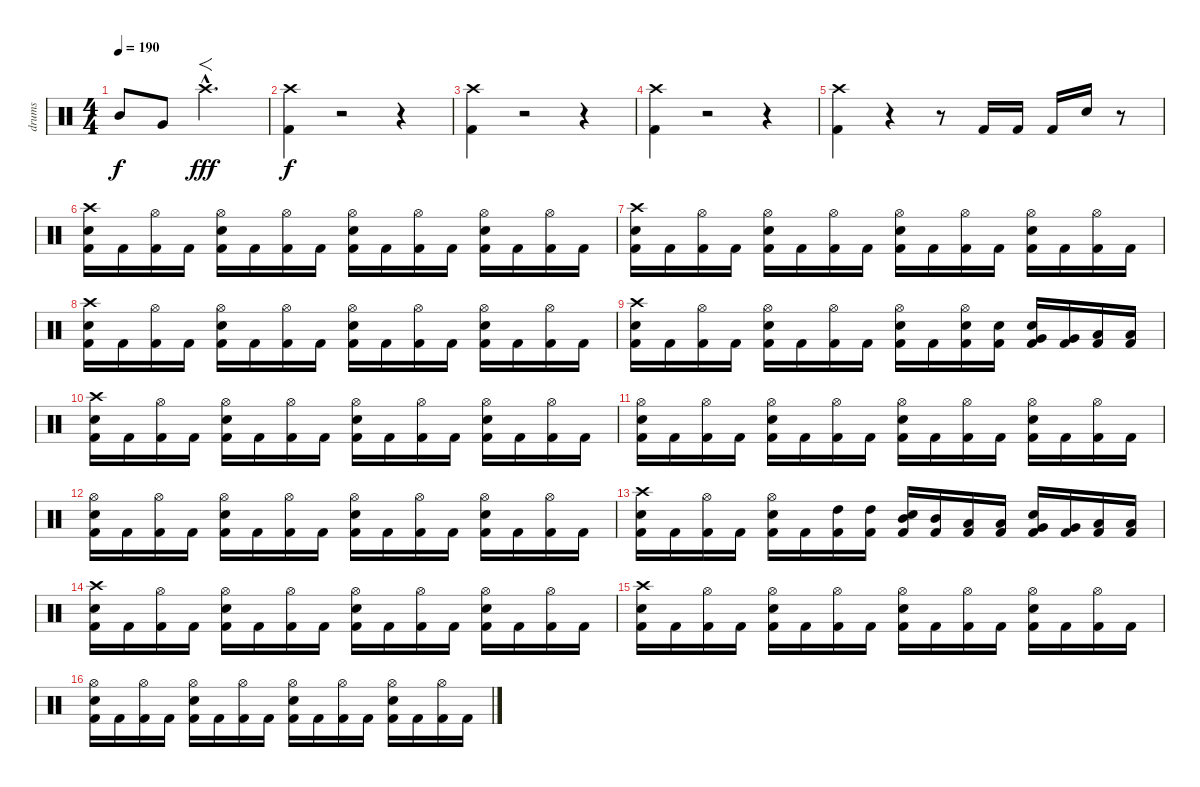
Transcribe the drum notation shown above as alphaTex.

\track ("drums" "drums") {instrument percussion}
\staff {score}
\articulation defaults
\ts (4 4)
\tempo 190
\clef neutral
\ks c "Mid Tom (hit)".8{dy f} "Very Low Tom (hit)".8 "Crash high (hit)"{hac}.2{f d dy fff}
|
("Crash high (hit)" "Kick (hit) 2").4{dy f} r.2 r.4 |
("Crash high (hit)" "Kick (hit) 2").4 r.2 r.4 |
("Crash high (hit)" "Kick (hit) 2").4 r.2 r.4 |
("Crash high (hit)" "Kick (hit) 2").4 r.4 r.8 "Kick (hit) 2".16 "Kick (hit) 2".16 "Kick (hit) 2".16 "Electric Snare (hit)".16 r.8 |
("Crash high (hit)" "Snare (hit) 2" "Kick (hit) 2").16 "Kick (hit) 2".16 ("Hi-Hat (open)" "Kick (hit) 2").16 "Kick (hit) 2".16 ("Hi-Hat (open)" "Snare (hit) 2" "Kick (hit) 2").16 "Kick (hit) 2".16 ("Hi-Hat (open)" "Kick (hit) 2").16 "Kick (hit) 2".16 ("Hi-Hat (open)" "Snare (hit) 2" "Kick (hit) 2").16 "Kick (hit) 2".16 ("Hi-Hat (open)" "Kick (hit) 2").16 "Kick (hit) 2".16 ("Hi-Hat (open)" "Snare (hit) 2" "Kick (hit) 2").16 "Kick (hit) 2".16 ("Hi-Hat (open)" "Kick (hit) 2").16 "Kick (hit) 2".16 |
("Crash high (hit)" "Snare (hit) 2" "Kick (hit) 2").16 "Kick (hit) 2".16 ("Hi-Hat (open)" "Kick (hit) 2").16 "Kick (hit) 2".16 ("Hi-Hat (open)" "Snare (hit) 2" "Kick (hit) 2").16 "Kick (hit) 2".16 ("Hi-Hat (open)" "Kick (hit) 2").16 "Kick (hit) 2".16 ("Hi-Hat (open)" "Snare (hit) 2" "Kick (hit) 2").16 "Kick (hit) 2".16 ("Hi-Hat (open)" "Kick (hit) 2").16 "Kick (hit) 2".16 ("Hi-Hat (open)" "Snare (hit) 2" "Kick (hit) 2").16 "Kick (hit) 2".16 ("Hi-Hat (open)" "Kick (hit) 2").16 "Kick (hit) 2".16 |
("Crash high (hit)" "Snare (hit) 2" "Kick (hit) 2").16 "Kick (hit) 2".16 ("Hi-Hat (open)" "Kick (hit) 2").16 "Kick (hit) 2".16 ("Hi-Hat (open)" "Snare (hit) 2" "Kick (hit) 2").16 "Kick (hit) 2".16 ("Hi-Hat (open)" "Kick (hit) 2").16 "Kick (hit) 2".16 ("Hi-Hat (open)" "Snare (hit) 2" "Kick (hit) 2").16 "Kick (hit) 2".16 ("Hi-Hat (open)" "Kick (hit) 2").16 "Kick (hit) 2".16 ("Hi-Hat (open)" "Snare (hit) 2" "Kick (hit) 2").16 "Kick (hit) 2".16 ("Hi-Hat (open)" "Kick (hit) 2").16 "Kick (hit) 2".16 |
("Crash high (hit)" "Snare (hit) 2" "Kick (hit) 2").16 "Kick (hit) 2".16 ("Hi-Hat (open)" "Kick (hit) 2").16 "Kick (hit) 2".16 ("Hi-Hat (open)" "Snare (hit) 2" "Kick (hit) 2").16 "Kick (hit) 2".16 ("Hi-Hat (open)" "Kick (hit) 2").16 "Kick (hit) 2".16 ("Hi-Hat (open)" "Snare (hit) 2" "Kick (hit) 2").16 "Kick (hit) 2".16 ("Hi-Hat (open)" "Snare (hit) 2" "Kick (hit) 2").16 ("Snare (hit) 2" "Kick (hit) 2").16 ("Very Low Tom (hit)" "Snare (hit) 2" "Kick (hit) 2").16 ("Very Low Tom (hit)" "Kick (hit) 2").16 ("Low Floor Tom (hit)" "Kick (hit) 2").16 ("Low Floor Tom (hit)" "Kick (hit) 2").16 |
("Crash high (hit)" "Snare (hit) 2" "Kick (hit) 2").16 "Kick (hit) 2".16 ("Hi-Hat (open)" "Kick (hit) 2").16 "Kick (hit) 2".16 ("Hi-Hat (open)" "Snare (hit) 2" "Kick (hit) 2").16 "Kick (hit) 2".16 ("Hi-Hat (open)" "Kick (hit) 2").16 "Kick (hit) 2".16 ("Hi-Hat (open)" "Snare (hit) 2" "Kick (hit) 2").16 "Kick (hit) 2".16 ("Hi-Hat (open)" "Kick (hit) 2").16 "Kick (hit) 2".16 ("Hi-Hat (open)" "Snare (hit) 2" "Kick (hit) 2").16 "Kick (hit) 2".16 ("Hi-Hat (open)" "Kick (hit) 2").16 "Kick (hit) 2".16 |
("Hi-Hat (open)" "Snare (hit) 2" "Kick (hit) 2").16 "Kick (hit) 2".16 ("Hi-Hat (open)" "Kick (hit) 2").16 "Kick (hit) 2".16 ("Hi-Hat (open)" "Snare (hit) 2" "Kick (hit) 2").16 "Kick (hit) 2".16 ("Hi-Hat (open)" "Kick (hit) 2").16 "Kick (hit) 2".16 ("Hi-Hat (open)" "Snare (hit) 2" "Kick (hit) 2").16 "Kick (hit) 2".16 ("Hi-Hat (open)" "Kick (hit) 2").16 "Kick (hit) 2".16 ("Hi-Hat (open)" "Snare (hit) 2" "Kick (hit) 2").16 "Kick (hit) 2".16 ("Hi-Hat (open)" "Kick (hit) 2").16 "Kick (hit) 2".16 |
("Hi-Hat (open)" "Snare (hit) 2" "Kick (hit) 2").16 "Kick (hit) 2".16 ("Hi-Hat (open)" "Kick (hit) 2").16 "Kick (hit) 2".16 ("Hi-Hat (open)" "Snare (hit) 2" "Kick (hit) 2").16 "Kick (hit) 2".16 ("Hi-Hat (open)" "Kick (hit) 2").16 "Kick (hit) 2".16 ("Hi-Hat (open)" "Snare (hit) 2" "Kick (hit) 2").16 "Kick (hit) 2".16 ("Hi-Hat (open)" "Kick (hit) 2").16 "Kick (hit) 2".16 ("Hi-Hat (open)" "Snare (hit) 2" "Kick (hit) 2").16 "Kick (hit) 2".16 ("Hi-Hat (open)" "Kick (hit) 2").16 "Kick (hit) 2".16 |
("Crash high (hit)" "Snare (hit) 2" "Kick (hit) 2").16 "Kick (hit) 2".16 ("Hi-Hat (open)" "Kick (hit) 2").16 "Kick (hit) 2".16 ("Hi-Hat (open)" "Snare (hit) 2" "Kick (hit) 2").16 "Kick (hit) 2".16 ("High Tom (hit)" "Kick (hit) 2").16 ("High Tom (hit)" "Kick (hit) 2").16 ("Mid Tom (hit)" "Snare (hit) 2" "Kick (hit) 2").16 ("Mid Tom (hit)" "Kick (hit) 2").16 ("Low Tom (hit)" "Kick (hit) 2").16 ("Low Tom (hit)" "Kick (hit) 2").16 ("Very Low Tom (hit)" "Snare (hit) 2" "Kick (hit) 2").16 ("Very Low Tom (hit)" "Kick (hit) 2").16 ("Low Floor Tom (hit)" "Kick (hit) 2").16 ("Low Floor Tom (hit)" "Kick (hit) 2").16 |
("Crash high (hit)" "Snare (hit) 2" "Kick (hit) 2").16 "Kick (hit) 2".16 ("Hi-Hat (open)" "Kick (hit) 2").16 "Kick (hit) 2".16 ("Hi-Hat (open)" "Snare (hit) 2" "Kick (hit) 2").16 "Kick (hit) 2".16 ("Hi-Hat (open)" "Kick (hit) 2").16 "Kick (hit) 2".16 ("Hi-Hat (open)" "Snare (hit) 2" "Kick (hit) 2").16 "Kick (hit) 2".16 ("Hi-Hat (open)" "Kick (hit) 2").16 "Kick (hit) 2".16 ("Hi-Hat (open)" "Snare (hit) 2" "Kick (hit) 2").16 "Kick (hit) 2".16 ("Hi-Hat (open)" "Kick (hit) 2").16 "Kick (hit) 2".16 |
("Crash high (hit)" "Snare (hit) 2" "Kick (hit) 2").16 "Kick (hit) 2".16 ("Hi-Hat (open)" "Kick (hit) 2").16 "Kick (hit) 2".16 ("Hi-Hat (open)" "Snare (hit) 2" "Kick (hit) 2").16 "Kick (hit) 2".16 ("Hi-Hat (open)" "Kick (hit) 2").16 "Kick (hit) 2".16 ("Hi-Hat (open)" "Snare (hit) 2" "Kick (hit) 2").16 "Kick (hit) 2".16 ("Hi-Hat (open)" "Kick (hit) 2").16 "Kick (hit) 2".16 ("Hi-Hat (open)" "Snare (hit) 2" "Kick (hit) 2").16 "Kick (hit) 2".16 ("Hi-Hat (open)" "Kick (hit) 2").16 "Kick (hit) 2".16 |
("Hi-Hat (open)" "Snare (hit) 2" "Kick (hit) 2").16 "Kick (hit) 2".16 ("Hi-Hat (open)" "Kick (hit) 2").16 "Kick (hit) 2".16 ("Hi-Hat (open)" "Snare (hit) 2" "Kick (hit) 2").16 "Kick (hit) 2".16 ("Hi-Hat (open)" "Kick (hit) 2").16 "Kick (hit) 2".16 ("Hi-Hat (open)" "Snare (hit) 2" "Kick (hit) 2").16 "Kick (hit) 2".16 ("Hi-Hat (open)" "Kick (hit) 2").16 "Kick (hit) 2".16 ("Hi-Hat (open)" "Snare (hit) 2" "Kick (hit) 2").16 "Kick (hit) 2".16 ("Hi-Hat (open)" "Kick (hit) 2").16 "Kick (hit) 2".16
